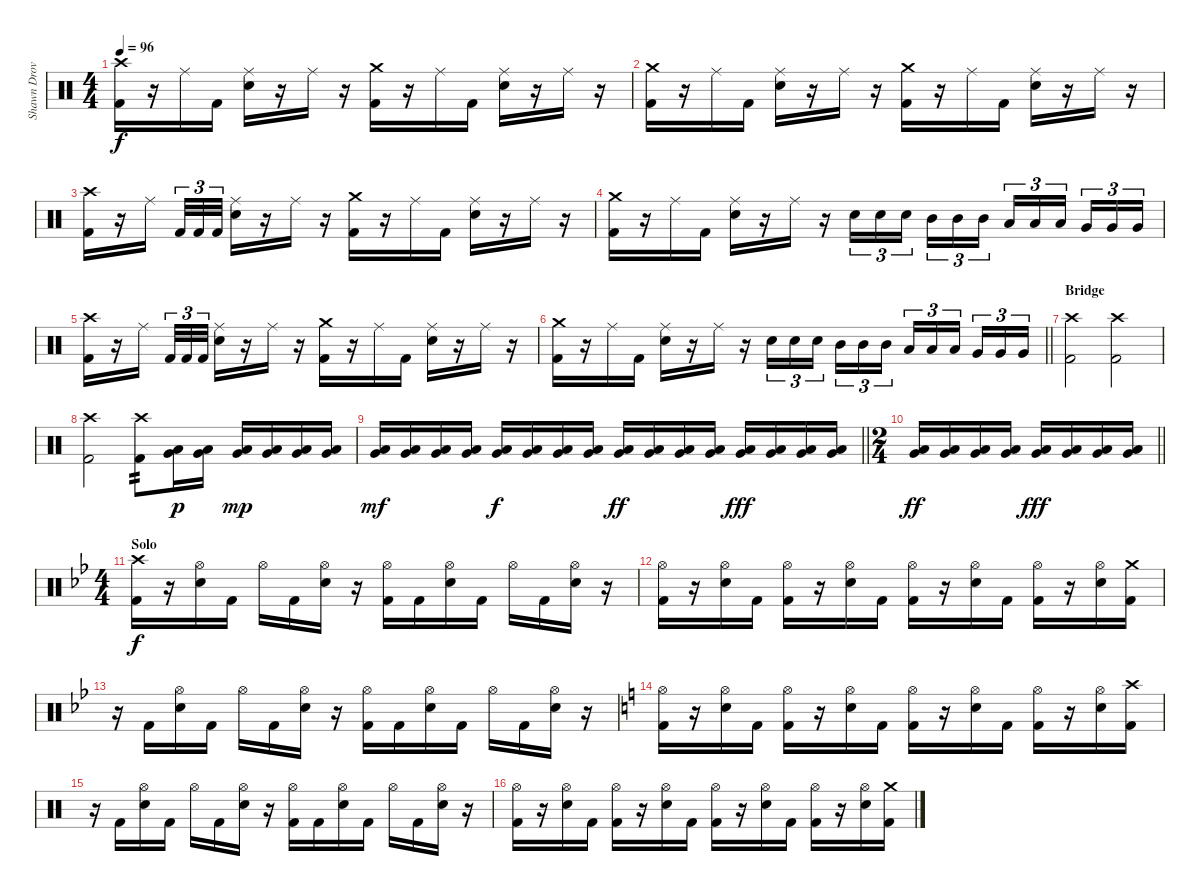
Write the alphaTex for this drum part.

\track ("Shawn Drover" "Shawn Drov") {instrument percussion}
\staff {score}
\articulation defaults
\ts (4 4)
\tempo 96
\clef neutral
\ks c
("Crash high (hit)" "Kick (hit) 2").16{dy f} r.16 "Ride (middle)".16 "Kick (hit) 2".16 ("Ride (middle)" "Snare (hit) 2").16 r.16 "Ride (middle)".16 r.16 ("Crash medium (hit)" "Kick (hit) 2").16 r.16 "Ride (middle)".16 "Kick (hit) 2".16 ("Ride (middle)" "Snare (hit) 2").16 r.16 "Ride (middle)".16 r.16 |
("Crash medium (hit)" "Kick (hit) 2").16 r.16 "Ride (middle)".16 "Kick (hit) 2".16 ("Ride (middle)" "Snare (hit) 2").16 r.16 "Ride (middle)".16 r.16 ("Crash medium (hit)" "Kick (hit) 2").16 r.16 "Ride (middle)".16 "Kick (hit) 2".16 ("Ride (middle)" "Snare (hit) 2").16 r.16 "Ride (middle)".16 r.16 |
("Crash high (hit)" "Kick (hit) 2").16 r.16 "Ride (middle)".16{beam splitsecondary} "Kick (hit) 2".32{tu (3 2)} "Kick (hit) 2".32{tu (3 2)} "Kick (hit) 2".32{tu (3 2)} ("Ride (middle)" "Snare (hit) 2").16 r.16 "Ride (middle)".16 r.16 ("Crash medium (hit)" "Kick (hit) 2").16 r.16 "Ride (middle)".16 "Kick (hit) 2".16 ("Ride (middle)" "Snare (hit) 2").16 r.16 "Ride (middle)".16 r.16 |
("Crash medium (hit)" "Kick (hit) 2").16 r.16 "Ride (middle)".16 "Kick (hit) 2".16 ("Ride (middle)" "Snare (hit) 2").16 r.16 "Ride (middle)".16 r.16 "Snare (hit) 2".16{tu (3 2)} "Snare (hit) 2".16{tu (3 2)} "Snare (hit) 2".16{tu (3 2) beam splitsecondary} "Mid Tom (hit)".16{tu (3 2)} "Mid Tom (hit)".16{tu (3 2)} "Mid Tom (hit)".16{tu (3 2)} "Low Tom (hit)".16{tu (3 2)} "Low Tom (hit)".16{tu (3 2)} "Low Tom (hit)".16{tu (3 2) beam splitsecondary} "Very Low Tom (hit)".16{tu (3 2)} "Very Low Tom (hit)".16{tu (3 2)} "Very Low Tom (hit)".16{tu (3 2)} |
("Crash high (hit)" "Kick (hit) 2").16 r.16 "Ride (middle)".16{beam splitsecondary} "Kick (hit) 2".32{tu (3 2)} "Kick (hit) 2".32{tu (3 2)} "Kick (hit) 2".32{tu (3 2)} ("Ride (middle)" "Snare (hit) 2").16 r.16 "Ride (middle)".16 r.16 ("Crash medium (hit)" "Kick (hit) 2").16 r.16 "Ride (middle)".16 "Kick (hit) 2".16 ("Ride (middle)" "Snare (hit) 2").16 r.16 "Ride (middle)".16 r.16 |
\barLineRight lightlight
("Crash medium (hit)" "Kick (hit) 2").16 r.16 "Ride (middle)".16 "Kick (hit) 2".16 ("Ride (middle)" "Snare (hit) 2").16 r.16 "Ride (middle)".16 r.16 "Snare (hit) 2".16{tu (3 2)} "Snare (hit) 2".16{tu (3 2)} "Snare (hit) 2".16{tu (3 2) beam splitsecondary} "Mid Tom (hit)".16{tu (3 2)} "Mid Tom (hit)".16{tu (3 2)} "Mid Tom (hit)".16{tu (3 2)} "Low Tom (hit)".16{tu (3 2)} "Low Tom (hit)".16{tu (3 2)} "Low Tom (hit)".16{tu (3 2) beam splitsecondary} "Very Low Tom (hit)".16{tu (3 2)} "Very Low Tom (hit)".16{tu (3 2)} "Very Low Tom (hit)".16{tu (3 2)} |
\section ("" "Bridge")
("Crash high (hit)" "Kick (hit) 2").2 ("Crash high (hit)" "Kick (hit) 2").2 |
("Crash high (hit)" "Kick (hit) 2").2 ("Crash high (hit)" "Kick (hit) 2").8{tp 2} ("Very Low Tom (hit)" "Low Floor Tom (hit)").16{dy p} ("Very Low Tom (hit)" "Low Floor Tom (hit)").16 ("Very Low Tom (hit)" "Low Floor Tom (hit)").16{dy mp} ("Very Low Tom (hit)" "Low Floor Tom (hit)").16 ("Very Low Tom (hit)" "Low Floor Tom (hit)").16 ("Very Low Tom (hit)" "Low Floor Tom (hit)").16 |
\barLineRight lightlight
("Very Low Tom (hit)" "Low Floor Tom (hit)").16{dy mf} ("Very Low Tom (hit)" "Low Floor Tom (hit)").16 ("Very Low Tom (hit)" "Low Floor Tom (hit)").16 ("Very Low Tom (hit)" "Low Floor Tom (hit)").16 ("Very Low Tom (hit)" "Low Floor Tom (hit)").16{dy f} ("Very Low Tom (hit)" "Low Floor Tom (hit)").16 ("Very Low Tom (hit)" "Low Floor Tom (hit)").16 ("Very Low Tom (hit)" "Low Floor Tom (hit)").16 ("Very Low Tom (hit)" "Low Floor Tom (hit)").16{dy ff} ("Very Low Tom (hit)" "Low Floor Tom (hit)").16 ("Very Low Tom (hit)" "Low Floor Tom (hit)").16 ("Very Low Tom (hit)" "Low Floor Tom (hit)").16 ("Very Low Tom (hit)" "Low Floor Tom (hit)").16{dy fff} ("Very Low Tom (hit)" "Low Floor Tom (hit)").16 ("Very Low Tom (hit)" "Low Floor Tom (hit)").16 ("Very Low Tom (hit)" "Low Floor Tom (hit)").16 |
\ts (2 4)
\barLineRight lightlight
("Very Low Tom (hit)" "Low Floor Tom (hit)").16{dy ff} ("Very Low Tom (hit)" "Low Floor Tom (hit)").16 ("Very Low Tom (hit)" "Low Floor Tom (hit)").16 ("Very Low Tom (hit)" "Low Floor Tom (hit)").16 ("Very Low Tom (hit)" "Low Floor Tom (hit)").16{dy fff} ("Very Low Tom (hit)" "Low Floor Tom (hit)").16 ("Very Low Tom (hit)" "Low Floor Tom (hit)").16 ("Very Low Tom (hit)" "Low Floor Tom (hit)").16 |
\ts (4 4)
\section ("" "Solo ")
\ks bb
("Crash high (hit)" "Kick (hit) 2").16{dy f} r.16 ("Hi-Hat (open)" "Snare (hit) 2").16 "Kick (hit) 2".16 "Hi-Hat (open)".16 "Kick (hit) 2".16 ("Hi-Hat (open)" "Snare (hit) 2").16 r.16 ("Hi-Hat (open)" "Kick (hit) 2").16 "Kick (hit) 2".16 ("Hi-Hat (open)" "Snare (hit) 2").16 "Kick (hit) 2".16 "Hi-Hat (open)".16 "Kick (hit) 2".16 ("Hi-Hat (open)" "Snare (hit) 2").16 r.16 |
("Hi-Hat (open)" "Kick (hit) 2").16 r.16 ("Hi-Hat (open)" "Snare (hit) 2").16 "Kick (hit) 2".16 ("Hi-Hat (open)" "Kick (hit) 2").16 r.16 ("Hi-Hat (open)" "Snare (hit) 2").16 "Kick (hit) 2".16 ("Hi-Hat (open)" "Kick (hit) 2").16 r.16 ("Hi-Hat (open)" "Snare (hit) 2").16 "Kick (hit) 2".16 ("Hi-Hat (open)" "Kick (hit) 2").16 r.16 ("Hi-Hat (open)" "Snare (hit) 2").16 ("Crash medium (hit)" "Kick (hit) 2").16 |
r.16 "Kick (hit) 2".16 ("Hi-Hat (open)" "Snare (hit) 2").16 "Kick (hit) 2".16 "Hi-Hat (open)".16 "Kick (hit) 2".16 ("Hi-Hat (open)" "Snare (hit) 2").16 r.16 ("Hi-Hat (open)" "Kick (hit) 2").16 "Kick (hit) 2".16 ("Hi-Hat (open)" "Snare (hit) 2").16 "Kick (hit) 2".16 "Hi-Hat (open)".16 "Kick (hit) 2".16 ("Hi-Hat (open)" "Snare (hit) 2").16 r.16 |
\ks c
("Hi-Hat (open)" "Kick (hit) 2").16 r.16 ("Hi-Hat (open)" "Snare (hit) 2").16 "Kick (hit) 2".16 ("Hi-Hat (open)" "Kick (hit) 2").16 r.16 ("Hi-Hat (open)" "Snare (hit) 2").16 "Kick (hit) 2".16 ("Hi-Hat (open)" "Kick (hit) 2").16 r.16 ("Hi-Hat (open)" "Snare (hit) 2").16 "Kick (hit) 2".16 ("Hi-Hat (open)" "Kick (hit) 2").16 r.16 ("Hi-Hat (open)" "Snare (hit) 2").16 ("Crash high (hit)" "Kick (hit) 2").16 |
r.16 "Kick (hit) 2".16 ("Hi-Hat (open)" "Snare (hit) 2").16 "Kick (hit) 2".16 "Hi-Hat (open)".16 "Kick (hit) 2".16 ("Hi-Hat (open)" "Snare (hit) 2").16 r.16 ("Hi-Hat (open)" "Kick (hit) 2").16 "Kick (hit) 2".16 ("Hi-Hat (open)" "Snare (hit) 2").16 "Kick (hit) 2".16 "Hi-Hat (open)".16 "Kick (hit) 2".16 ("Hi-Hat (open)" "Snare (hit) 2").16 r.16 |
("Hi-Hat (open)" "Kick (hit) 2").16 r.16 ("Hi-Hat (open)" "Snare (hit) 2").16 "Kick (hit) 2".16 ("Hi-Hat (open)" "Kick (hit) 2").16 r.16 ("Hi-Hat (open)" "Snare (hit) 2").16 "Kick (hit) 2".16 ("Hi-Hat (open)" "Kick (hit) 2").16 r.16 ("Hi-Hat (open)" "Snare (hit) 2").16 "Kick (hit) 2".16 ("Hi-Hat (open)" "Kick (hit) 2").16 r.16 ("Hi-Hat (open)" "Snare (hit) 2").16 ("Crash medium (hit)" "Kick (hit) 2").16
